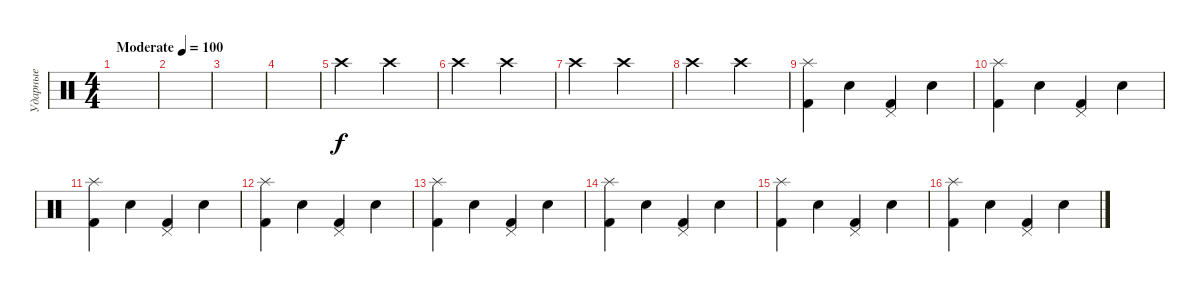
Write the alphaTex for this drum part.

\track ("Ударные" "Ударные") {instrument percussion}
\staff {score}
\articulation defaults
\ts (4 4)
\tempo (100 "Moderate")
\clef neutral
\ks c
|
|
|
|
"Crash high (hit)".2 "Crash high (hit)".2 |
"Crash high (hit)".2 "Crash high (hit)".2 |
"Crash high (hit)".2 "Crash high (hit)".2 |
"Crash high (hit)".2 "Crash high (hit)".2 |
("Splash (hit)" "Kick (hit) 2").4 "Snare (hit) 2".4 ("Pedal Hi-Hat (hit)" "Kick (hit) 2").4 "Snare (hit) 2".4 |
("Splash (hit)" "Kick (hit) 2").4 "Snare (hit) 2".4 ("Pedal Hi-Hat (hit)" "Kick (hit) 2").4 "Snare (hit) 2".4 |
("Splash (hit)" "Kick (hit) 2").4 "Snare (hit) 2".4 ("Pedal Hi-Hat (hit)" "Kick (hit) 2").4 "Snare (hit) 2".4 |
("Splash (hit)" "Kick (hit) 2").4 "Snare (hit) 2".4 ("Pedal Hi-Hat (hit)" "Kick (hit) 2").4 "Snare (hit) 2".4 |
("Splash (hit)" "Kick (hit) 2").4 "Snare (hit) 2".4 ("Pedal Hi-Hat (hit)" "Kick (hit) 2").4 "Snare (hit) 2".4 |
("Splash (hit)" "Kick (hit) 2").4 "Snare (hit) 2".4 ("Pedal Hi-Hat (hit)" "Kick (hit) 2").4 "Snare (hit) 2".4 |
("Splash (hit)" "Kick (hit) 2").4 "Snare (hit) 2".4 ("Pedal Hi-Hat (hit)" "Kick (hit) 2").4 "Snare (hit) 2".4 |
("Splash (hit)" "Kick (hit) 2").4 "Snare (hit) 2".4 ("Pedal Hi-Hat (hit)" "Kick (hit) 2").4 "Snare (hit) 2".4
